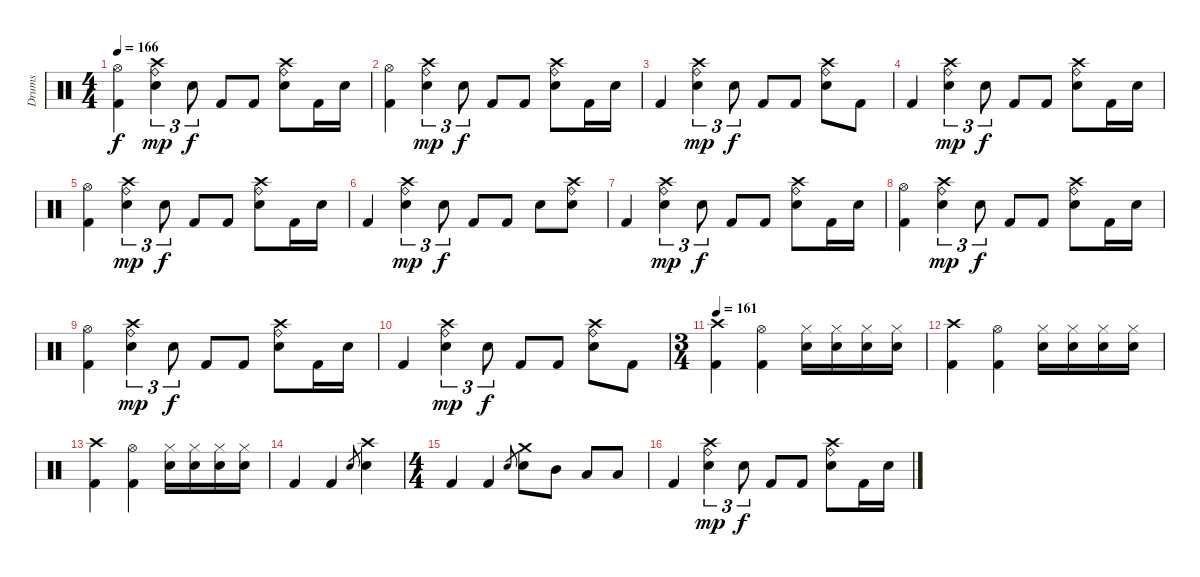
\track ("Drums" "Drums") {instrument percussion}
\staff {score}
\articulation defaults
\ts (4 4)
\tempo 166
\clef neutral
\ks c
("Kick (hit) 2" "Hi-Hat (open)").4{dy f} ("Crash high (hit)" "Electric Snare (hit)" "Ride (bell)").4{tu (3 2) dy mp} "Electric Snare (hit)".8{tu (3 2) dy f} "Kick (hit) 2".8 "Kick (hit) 2".8 ("Ride (bell)" "Crash high (hit)" "Electric Snare (hit)").8 "Kick (hit) 2".16 "Electric Snare (hit)".16 |
("Kick (hit) 2" "Hi-Hat (open)").4 ("Crash high (hit)" "Electric Snare (hit)" "Ride (bell)").4{tu (3 2) dy mp} "Electric Snare (hit)".8{tu (3 2) dy f} "Kick (hit) 2".8 "Kick (hit) 2".8 ("Ride (bell)" "Crash high (hit)" "Electric Snare (hit)").8 "Kick (hit) 2".16 "Electric Snare (hit)".16 |
"Kick (hit) 2".4 ("Crash high (hit)" "Electric Snare (hit)" "Ride (bell)").4{tu (3 2) dy mp} "Electric Snare (hit)".8{tu (3 2) dy f} "Kick (hit) 2".8 "Kick (hit) 2".8 ("Ride (bell)" "Crash high (hit)" "Electric Snare (hit)").8 "Kick (hit) 2".8 |
"Kick (hit) 2".4 ("Crash high (hit)" "Electric Snare (hit)" "Ride (bell)").4{tu (3 2) dy mp} "Electric Snare (hit)".8{tu (3 2) dy f} "Kick (hit) 2".8 "Kick (hit) 2".8 ("Ride (bell)" "Crash high (hit)" "Electric Snare (hit)").8 "Kick (hit) 2".16 "Electric Snare (hit)".16 |
("Kick (hit) 2" "Hi-Hat (open)").4 ("Crash high (hit)" "Electric Snare (hit)" "Ride (bell)").4{tu (3 2) dy mp} "Electric Snare (hit)".8{tu (3 2) dy f} "Kick (hit) 2".8 "Kick (hit) 2".8 ("Ride (bell)" "Crash high (hit)" "Electric Snare (hit)").8 "Kick (hit) 2".16 "Electric Snare (hit)".16 |
"Kick (hit) 2".4 ("Crash high (hit)" "Electric Snare (hit)" "Ride (bell)").4{tu (3 2) dy mp} "Electric Snare (hit)".8{tu (3 2) dy f} "Kick (hit) 2".8 "Kick (hit) 2".8 "Electric Snare (hit)".8 ("Ride (bell)" "Crash high (hit)" "Electric Snare (hit)").8 |
"Kick (hit) 2".4 ("Crash high (hit)" "Electric Snare (hit)" "Ride (bell)").4{tu (3 2) dy mp} "Electric Snare (hit)".8{tu (3 2) dy f} "Kick (hit) 2".8 "Kick (hit) 2".8 ("Ride (bell)" "Crash high (hit)" "Electric Snare (hit)").8 "Kick (hit) 2".16 "Electric Snare (hit)".16 |
("Kick (hit) 2" "Hi-Hat (open)").4 ("Crash high (hit)" "Electric Snare (hit)" "Ride (bell)").4{tu (3 2) dy mp} "Electric Snare (hit)".8{tu (3 2) dy f} "Kick (hit) 2".8 "Kick (hit) 2".8 ("Ride (bell)" "Crash high (hit)" "Electric Snare (hit)").8 "Kick (hit) 2".16 "Electric Snare (hit)".16 |
("Kick (hit) 2" "Hi-Hat (open)").4 ("Crash high (hit)" "Electric Snare (hit)" "Ride (bell)").4{tu (3 2) dy mp} "Electric Snare (hit)".8{tu (3 2) dy f} "Kick (hit) 2".8 "Kick (hit) 2".8 ("Ride (bell)" "Crash high (hit)" "Electric Snare (hit)").8 "Kick (hit) 2".16 "Electric Snare (hit)".16 |
"Kick (hit) 2".4 ("Crash high (hit)" "Electric Snare (hit)" "Ride (bell)").4{tu (3 2) dy mp} "Electric Snare (hit)".8{tu (3 2) dy f} "Kick (hit) 2".8 "Kick (hit) 2".8 ("Ride (bell)" "Crash high (hit)" "Electric Snare (hit)").8 "Kick (hit) 2".8 |
\ts (3 4)
\tempo 161
("Kick (hit) 2" "Crash high (hit)").4 ("Kick (hit) 2" "Hi-Hat (open)").4 ("Hi-Hat (closed)" "Electric Snare (hit)").16 ("Hi-Hat (closed)" "Electric Snare (hit)").16 ("Hi-Hat (closed)" "Electric Snare (hit)").16 ("Hi-Hat (closed)" "Electric Snare (hit)").16 |
("Kick (hit) 2" "Crash high (hit)").4 ("Kick (hit) 2" "Hi-Hat (open)").4 ("Hi-Hat (closed)" "Electric Snare (hit)").16 ("Hi-Hat (closed)" "Electric Snare (hit)").16 ("Hi-Hat (closed)" "Electric Snare (hit)").16 ("Hi-Hat (closed)" "Electric Snare (hit)").16 |
("Kick (hit) 2" "Crash high (hit)").4 ("Kick (hit) 2" "Hi-Hat (open)").4 ("Hi-Hat (closed)" "Electric Snare (hit)").16 ("Hi-Hat (closed)" "Electric Snare (hit)").16 ("Hi-Hat (closed)" "Electric Snare (hit)").16 ("Hi-Hat (closed)" "Electric Snare (hit)").16 |
"Kick (hit) 2".4 "Kick (hit) 2".4 "Electric Snare (hit)".8{gr} ("Electric Snare (hit)" "Crash high (hit)").4 |
\ts (4 4)
"Kick (hit) 2".4 "Kick (hit) 2".4 "Electric Snare (hit)".8{gr} ("Electric Snare (hit)" "Crash medium (hit)").8 "Mid Tom (hit)".8 "Low Tom (hit)".8 "Low Floor Tom (hit)".8 |
"Kick (hit) 2".4 ("Crash high (hit)" "Electric Snare (hit)" "Ride (bell)").4{tu (3 2) dy mp} "Electric Snare (hit)".8{tu (3 2) dy f} "Kick (hit) 2".8 "Kick (hit) 2".8 ("Ride (bell)" "Crash high (hit)" "Electric Snare (hit)").8 "Kick (hit) 2".16 "Electric Snare (hit)".16
